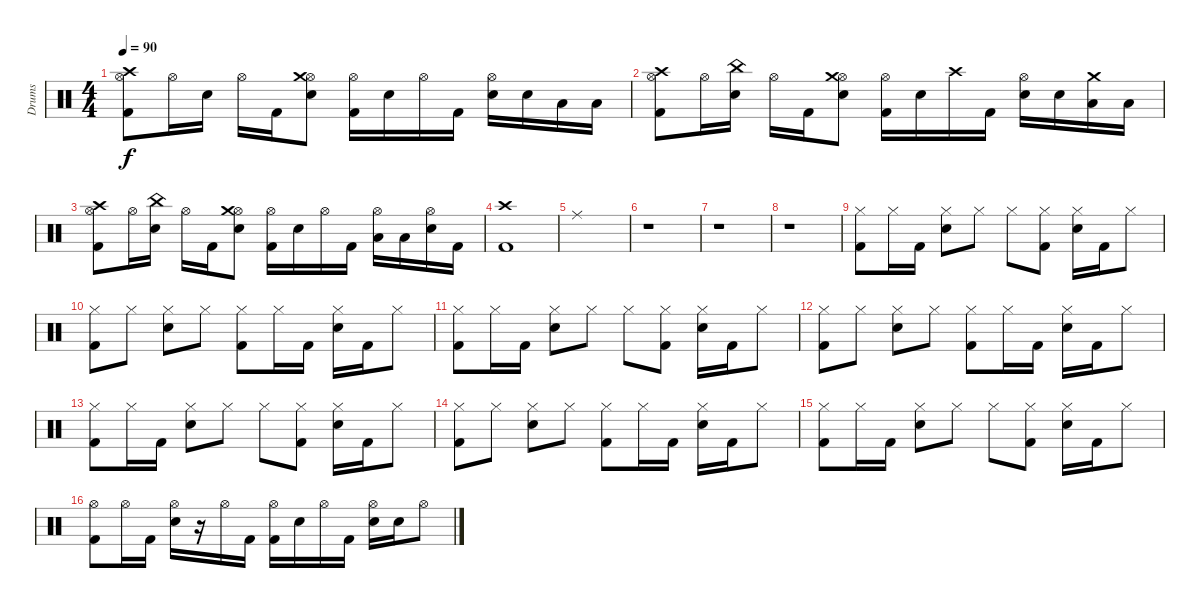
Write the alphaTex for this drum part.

\track ("Drums" "Drums") {instrument percussion}
\staff {score}
\articulation defaults
\ts (4 4)
\tempo 90
\clef neutral
\ks c
("Crash high (hit)" "Hi-Hat (open)" "Kick (hit) 2").8{dy f} "Hi-Hat (open)".16 "Snare (hit) 2".16 "Hi-Hat (open)".16 "Kick (hit) 2".16 ("Snare (hit) 2" "Hi-Hat (open)" "Crash medium (hit)").8 ("Hi-Hat (open)" "Kick (hit) 2").16 "Snare (hit) 2".16 "Hi-Hat (open)".16 "Kick (hit) 2".16 ("Hi-Hat (open)" "Snare (hit) 2").16 "Snare (hit) 2".16 "Low Tom (hit)".16 "Low Floor Tom (hit)".16 |
("Crash high (hit)" "Hi-Hat (open)" "Kick (hit) 2").8 "Hi-Hat (open)".16 ("Snare (hit) 2" "China (hit)").16 "Hi-Hat (open)".16 "Kick (hit) 2".16 ("Snare (hit) 2" "Hi-Hat (open)" "Crash medium (hit)").8 ("Hi-Hat (open)" "Kick (hit) 2").16 "Snare (hit) 2".16 "Crash high (hit)".16 "Kick (hit) 2".16 ("Hi-Hat (open)" "Snare (hit) 2").16 "Snare (hit) 2".16 ("Low Tom (hit)" "Crash medium (hit)").16 "Low Floor Tom (hit)".16 |
("Crash high (hit)" "Hi-Hat (open)" "Kick (hit) 2").8 "Hi-Hat (open)".16 ("China (hit)" "Snare (hit) 2").16 "Hi-Hat (open)".16 "Kick (hit) 2".16 ("Snare (hit) 2" "Hi-Hat (open)" "Crash medium (hit)").8 ("Hi-Hat (open)" "Kick (hit) 2").16 "Snare (hit) 2".16 "Hi-Hat (open)".16 "Kick (hit) 2".16 ("Hi-Hat (open)" "Low Tom (hit)").16 "Low Floor Tom (hit)".16 ("Snare (hit) 2" "Hi-Hat (open)").16 "Kick (hit) 2".16 |
("Crash high (hit)" "Kick (hit) 2").1 |
"Ride (middle)".1 |
r.1 |
r.1 |
r.1 |
("Hi-Hat (closed)" "Kick (hit) 2").8 "Hi-Hat (closed)".16 "Kick (hit) 2".16 ("Hi-Hat (closed)" "Snare (hit) 2").8 "Hi-Hat (closed)".8 "Hi-Hat (closed)".8 ("Hi-Hat (closed)" "Kick (hit) 2").8 ("Hi-Hat (closed)" "Snare (hit) 2").16 "Kick (hit) 2".16 "Hi-Hat (closed)".8 |
("Hi-Hat (closed)" "Kick (hit) 2").8 "Hi-Hat (closed)".8 ("Hi-Hat (closed)" "Snare (hit) 2").8 "Hi-Hat (closed)".8 ("Hi-Hat (closed)" "Kick (hit) 2").8 "Hi-Hat (closed)".16 "Kick (hit) 2".16 ("Hi-Hat (closed)" "Snare (hit) 2").16 "Kick (hit) 2".16 "Hi-Hat (closed)".8 |
("Hi-Hat (closed)" "Kick (hit) 2").8 "Hi-Hat (closed)".16 "Kick (hit) 2".16 ("Hi-Hat (closed)" "Snare (hit) 2").8 "Hi-Hat (closed)".8 "Hi-Hat (closed)".8 ("Hi-Hat (closed)" "Kick (hit) 2").8 ("Hi-Hat (closed)" "Snare (hit) 2").16 "Kick (hit) 2".16 "Hi-Hat (closed)".8 |
("Hi-Hat (closed)" "Kick (hit) 2").8 "Hi-Hat (closed)".8 ("Hi-Hat (closed)" "Snare (hit) 2").8 "Hi-Hat (closed)".8 ("Hi-Hat (closed)" "Kick (hit) 2").8 "Hi-Hat (closed)".16 "Kick (hit) 2".16 ("Hi-Hat (closed)" "Snare (hit) 2").16 "Kick (hit) 2".16 "Hi-Hat (closed)".8 |
("Hi-Hat (closed)" "Kick (hit) 2").8 "Hi-Hat (closed)".16 "Kick (hit) 2".16 ("Hi-Hat (closed)" "Snare (hit) 2").8 "Hi-Hat (closed)".8 "Hi-Hat (closed)".8 ("Hi-Hat (closed)" "Kick (hit) 2").8 ("Hi-Hat (closed)" "Snare (hit) 2").16 "Kick (hit) 2".16 "Hi-Hat (closed)".8 |
("Hi-Hat (closed)" "Kick (hit) 2").8 "Hi-Hat (closed)".8 ("Hi-Hat (closed)" "Snare (hit) 2").8 "Hi-Hat (closed)".8 ("Hi-Hat (closed)" "Kick (hit) 2").8 "Hi-Hat (closed)".16 "Kick (hit) 2".16 ("Hi-Hat (closed)" "Snare (hit) 2").16 "Kick (hit) 2".16 "Hi-Hat (closed)".8 |
("Hi-Hat (closed)" "Kick (hit) 2").8 "Hi-Hat (closed)".16 "Kick (hit) 2".16 ("Hi-Hat (closed)" "Snare (hit) 2").8 "Hi-Hat (closed)".8 "Hi-Hat (closed)".8 ("Hi-Hat (closed)" "Kick (hit) 2").8 ("Hi-Hat (closed)" "Snare (hit) 2").16 "Kick (hit) 2".16 "Hi-Hat (closed)".8 |
("Hi-Hat (open)" "Kick (hit) 2").8 "Hi-Hat (open)".16 "Kick (hit) 2".16 ("Hi-Hat (open)" "Snare (hit) 2").16 r.16 "Hi-Hat (open)".16 "Kick (hit) 2".16 ("Hi-Hat (open)" "Kick (hit) 2").16 "Snare (hit) 2".16 "Hi-Hat (open)".16 "Kick (hit) 2".16 ("Hi-Hat (open)" "Snare (hit) 2").16 "Snare (hit) 2".16 "Hi-Hat (open)".8
